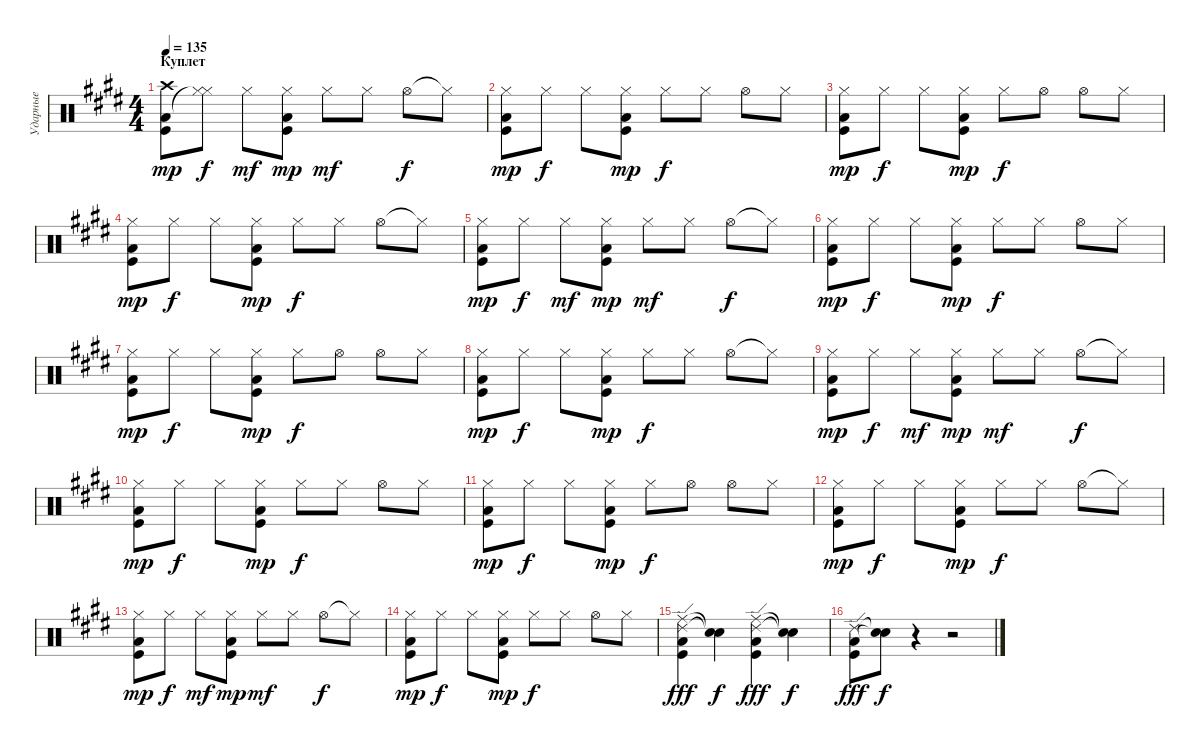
\track ("Ударные" "Ударные") {instrument percussion}
\staff {score}
\articulation defaults
\ts (4 4)
\section ("" "Куплет")
\tempo 135
\clef neutral
\ks e
("Crash high (hit)" "Low Tom (hit)" "Kick (hit)").8{dy mp} ("Hi-Hat (closed)" "Hi-Hat (closed)"{t}).8{dy f} "Hi-Hat (closed)".8{dy mf} ("Hi-Hat (closed)" "Low Tom (hit)" "Kick (hit)").8{dy mp} "Hi-Hat (closed)".8{dy mf} "Hi-Hat (closed)".8 "Hi-Hat (open)".8{dy f} "Hi-Hat (closed)"{t}.8 |
("Hi-Hat (closed)" "Low Tom (hit)" "Kick (hit)").8{dy mp} "Hi-Hat (closed)".8{dy f} "Hi-Hat (closed)".8 ("Hi-Hat (closed)" "Low Tom (hit)" "Kick (hit)").8{dy mp} "Hi-Hat (closed)".8{dy f} "Hi-Hat (closed)".8 "Hi-Hat (open)".8 "Hi-Hat (closed)".8 |
("Hi-Hat (closed)" "Low Tom (hit)" "Kick (hit)").8{dy mp} "Hi-Hat (closed)".8{dy f} "Hi-Hat (closed)".8 ("Hi-Hat (closed)" "Low Tom (hit)" "Kick (hit)").8{dy mp} "Hi-Hat (closed)".8{dy f} "Hi-Hat (open)".8 "Hi-Hat (open)".8 "Hi-Hat (closed)".8 |
("Hi-Hat (closed)" "Low Tom (hit)" "Kick (hit)").8{dy mp} "Hi-Hat (closed)".8{dy f} "Hi-Hat (closed)".8 ("Hi-Hat (closed)" "Low Tom (hit)" "Kick (hit)").8{dy mp} "Hi-Hat (closed)".8{dy f} "Hi-Hat (closed)".8 "Hi-Hat (open)".8 "Hi-Hat (closed)"{t}.8 |
("Hi-Hat (closed)" "Low Tom (hit)" "Kick (hit)").8{dy mp} "Hi-Hat (closed)".8{dy f} "Hi-Hat (closed)".8{dy mf} ("Hi-Hat (closed)" "Low Tom (hit)" "Kick (hit)").8{dy mp} "Hi-Hat (closed)".8{dy mf} "Hi-Hat (closed)".8 "Hi-Hat (open)".8{dy f} "Hi-Hat (closed)"{t}.8 |
("Hi-Hat (closed)" "Low Tom (hit)" "Kick (hit)").8{dy mp} "Hi-Hat (closed)".8{dy f} "Hi-Hat (closed)".8 ("Hi-Hat (closed)" "Low Tom (hit)" "Kick (hit)").8{dy mp} "Hi-Hat (closed)".8{dy f} "Hi-Hat (closed)".8 "Hi-Hat (open)".8 "Hi-Hat (closed)".8 |
("Hi-Hat (closed)" "Low Tom (hit)" "Kick (hit)").8{dy mp} "Hi-Hat (closed)".8{dy f} "Hi-Hat (closed)".8 ("Hi-Hat (closed)" "Low Tom (hit)" "Kick (hit)").8{dy mp} "Hi-Hat (closed)".8{dy f} "Hi-Hat (open)".8 "Hi-Hat (open)".8 "Hi-Hat (closed)".8 |
("Hi-Hat (closed)" "Low Tom (hit)" "Kick (hit)").8{dy mp} "Hi-Hat (closed)".8{dy f} "Hi-Hat (closed)".8 ("Hi-Hat (closed)" "Low Tom (hit)" "Kick (hit)").8{dy mp} "Hi-Hat (closed)".8{dy f} "Hi-Hat (closed)".8 "Hi-Hat (open)".8 "Hi-Hat (closed)"{t}.8 |
("Hi-Hat (closed)" "Low Tom (hit)" "Kick (hit)").8{dy mp} "Hi-Hat (closed)".8{dy f} "Hi-Hat (closed)".8{dy mf} ("Hi-Hat (closed)" "Low Tom (hit)" "Kick (hit)").8{dy mp} "Hi-Hat (closed)".8{dy mf} "Hi-Hat (closed)".8 "Hi-Hat (open)".8{dy f} "Hi-Hat (closed)"{t}.8 |
("Hi-Hat (closed)" "Low Tom (hit)" "Kick (hit)").8{dy mp} "Hi-Hat (closed)".8{dy f} "Hi-Hat (closed)".8 ("Hi-Hat (closed)" "Low Tom (hit)" "Kick (hit)").8{dy mp} "Hi-Hat (closed)".8{dy f} "Hi-Hat (closed)".8 "Hi-Hat (open)".8 "Hi-Hat (closed)".8 |
("Hi-Hat (closed)" "Low Tom (hit)" "Kick (hit)").8{dy mp} "Hi-Hat (closed)".8{dy f} "Hi-Hat (closed)".8 ("Hi-Hat (closed)" "Low Tom (hit)" "Kick (hit)").8{dy mp} "Hi-Hat (closed)".8{dy f} "Hi-Hat (open)".8 "Hi-Hat (open)".8 "Hi-Hat (closed)".8 |
("Hi-Hat (closed)" "Low Tom (hit)" "Kick (hit)").8{dy mp} "Hi-Hat (closed)".8{dy f} "Hi-Hat (closed)".8 ("Hi-Hat (closed)" "Low Tom (hit)" "Kick (hit)").8{dy mp} "Hi-Hat (closed)".8{dy f} "Hi-Hat (closed)".8 "Hi-Hat (open)".8 "Hi-Hat (closed)"{t}.8 |
("Hi-Hat (closed)" "Low Tom (hit)" "Kick (hit)").8{dy mp} "Hi-Hat (closed)".8{dy f} "Hi-Hat (closed)".8{dy mf} ("Hi-Hat (closed)" "Low Tom (hit)" "Kick (hit)").8{dy mp} "Hi-Hat (closed)".8{dy mf} "Hi-Hat (closed)".8 "Hi-Hat (open)".8{dy f} "Hi-Hat (closed)"{t}.8 |
("Hi-Hat (closed)" "Low Tom (hit)" "Kick (hit)").8{dy mp} "Hi-Hat (closed)".8{dy f} "Hi-Hat (closed)".8 ("Hi-Hat (closed)" "Low Tom (hit)" "Kick (hit)").8{dy mp} "Hi-Hat (closed)".8{dy f} "Hi-Hat (closed)".8 "Hi-Hat (open)".8 "Hi-Hat (closed)".8 |
("Ride (edge) 2" "Ride (middle)" "Low Tom (hit)" "Kick (hit)").4{dy fff} ("Snare (hit)"{t} "Snare (hit)"{t}).4{dy f} ("Ride (edge) 2" "Ride (middle)" "Low Tom (hit)" "Kick (hit)").4{dy fff} ("Snare (hit)"{t} "Snare (hit)"{t}).4{dy f} |
("Ride (edge) 2" "Low Tom (hit)" "Kick (hit)").8{dy fff} ("Snare (hit)"{t} "Snare (hit)"{t}).8{dy f} r.4 r.2
